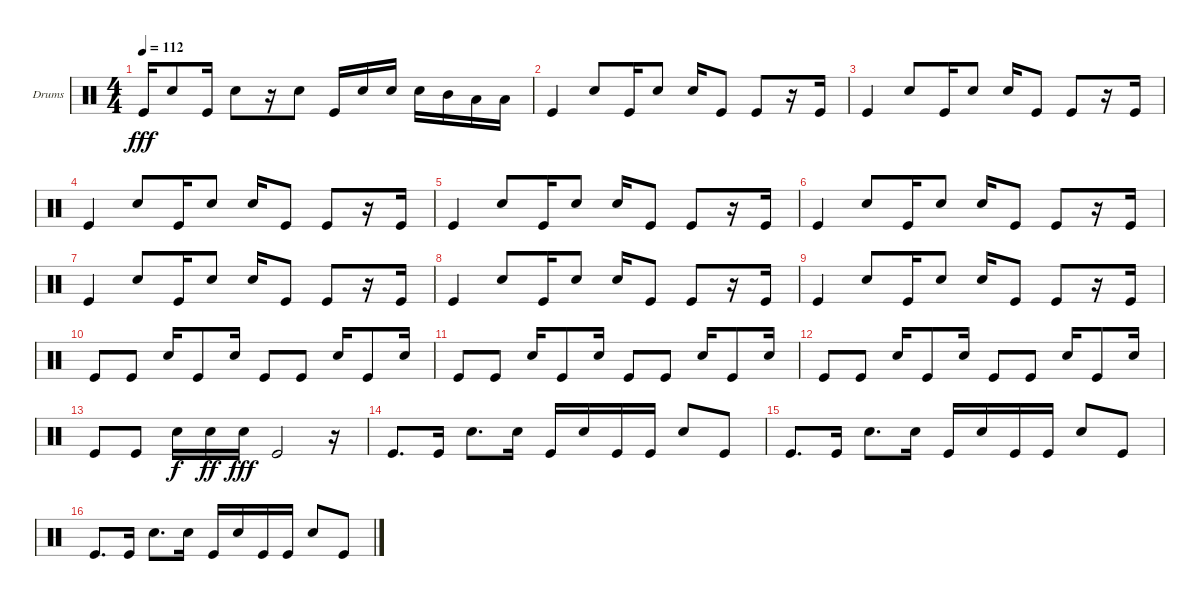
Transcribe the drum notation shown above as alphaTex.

\defaultSystemsLayout 4
\bracketExtendMode groupsimilarinstruments
\firstSystemTrackNameOrientation horizontal
\otherSystemsTrackNameOrientation horizontal
\track ("Пашок" "Drums") {instrument percussion}
\staff {score}
\articulation defaults
\ts (4 4)
\tempo 112
\clef neutral
\ks c "Kick (hit)".16{dy fff} "Snare (hit) 2".8 "Kick (hit)".16 "Snare (hit) 2".8
r.16 "Snare (hit) 2".8 "Kick (hit)".16 "Snare (hit) 2".16 "Snare (hit) 2".16 "Snare (hit) 2".16 "Mid Tom (hit)".16 "Low Tom (hit)".16 "Low Tom (hit)".16 |
"Kick (hit)".4 "Snare (hit) 2".8 "Kick (hit)".16 "Snare (hit) 2".8 "Snare (hit) 2".16 "Kick (hit)".8 "Kick (hit)".8 r.16 "Kick (hit)".16 |
"Kick (hit)".4 "Snare (hit) 2".8 "Kick (hit)".16 "Snare (hit) 2".8 "Snare (hit) 2".16 "Kick (hit)".8 "Kick (hit)".8 r.16 "Kick (hit)".16 |
"Kick (hit)".4 "Snare (hit) 2".8 "Kick (hit)".16 "Snare (hit) 2".8 "Snare (hit) 2".16 "Kick (hit)".8 "Kick (hit)".8 r.16 "Kick (hit)".16 |
"Kick (hit)".4 "Snare (hit) 2".8 "Kick (hit)".16 "Snare (hit) 2".8 "Snare (hit) 2".16 "Kick (hit)".8 "Kick (hit)".8 r.16 "Kick (hit)".16 |
"Kick (hit)".4 "Snare (hit) 2".8 "Kick (hit)".16 "Snare (hit) 2".8 "Snare (hit) 2".16 "Kick (hit)".8 "Kick (hit)".8 r.16 "Kick (hit)".16 |
"Kick (hit)".4 "Snare (hit) 2".8 "Kick (hit)".16 "Snare (hit) 2".8 "Snare (hit) 2".16 "Kick (hit)".8 "Kick (hit)".8 r.16 "Kick (hit)".16 |
"Kick (hit)".4 "Snare (hit) 2".8 "Kick (hit)".16 "Snare (hit) 2".8 "Snare (hit) 2".16 "Kick (hit)".8 "Kick (hit)".8 r.16 "Kick (hit)".16 |
"Kick (hit)".4 "Snare (hit) 2".8 "Kick (hit)".16 "Snare (hit) 2".8 "Snare (hit) 2".16 "Kick (hit)".8 "Kick (hit)".8 r.16 "Kick (hit)".16 |
"Kick (hit)".8 "Kick (hit)".8 "Snare (hit) 2".16 "Kick (hit)".8 "Snare (hit) 2".16 "Kick (hit)".8 "Kick (hit)".8 "Snare (hit) 2".16 "Kick (hit)".8 "Snare (hit) 2".16 |
"Kick (hit)".8 "Kick (hit)".8 "Snare (hit) 2".16 "Kick (hit)".8 "Snare (hit) 2".16 "Kick (hit)".8 "Kick (hit)".8 "Snare (hit) 2".16 "Kick (hit)".8 "Snare (hit) 2".16 |
"Kick (hit)".8 "Kick (hit)".8 "Snare (hit) 2".16 "Kick (hit)".8 "Snare (hit) 2".16 "Kick (hit)".8 "Kick (hit)".8 "Snare (hit) 2".16 "Kick (hit)".8 "Snare (hit) 2".16 |
"Kick (hit)".8 "Kick (hit)".8 "Snare (hit) 2".16{dy f} "Snare (hit) 2".16{dy ff} "Snare (hit) 2".16{dy fff} "Kick (hit)".2 r.16 |
"Kick (hit)".8{d} "Kick (hit)".16 "Snare (hit) 2".8{d} "Snare (hit) 2".16 "Kick (hit)".16 "Snare (hit) 2".16 "Kick (hit)".16 "Kick (hit)".16 "Snare (hit) 2".8 "Kick (hit)".8 |
"Kick (hit)".8{d} "Kick (hit)".16 "Snare (hit) 2".8{d} "Snare (hit) 2".16 "Kick (hit)".16 "Snare (hit) 2".16 "Kick (hit)".16 "Kick (hit)".16 "Snare (hit) 2".8 "Kick (hit)".8 |
"Kick (hit)".8{d} "Kick (hit)".16 "Snare (hit) 2".8{d} "Snare (hit) 2".16 "Kick (hit)".16 "Snare (hit) 2".16 "Kick (hit)".16 "Kick (hit)".16 "Snare (hit) 2".8 "Kick (hit)".8
